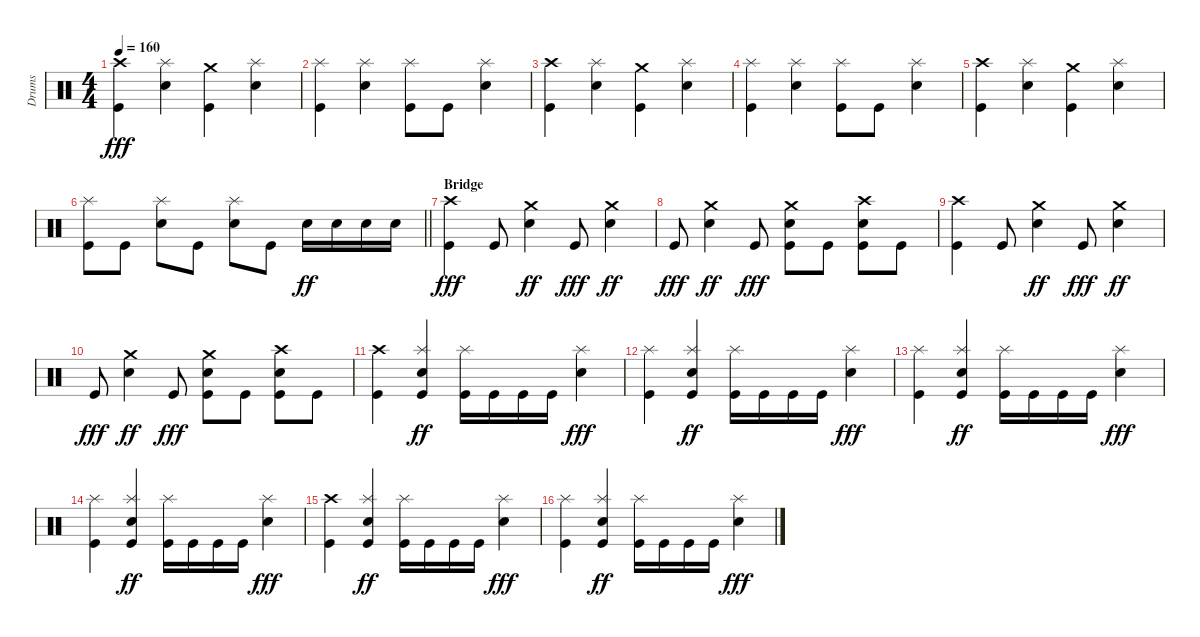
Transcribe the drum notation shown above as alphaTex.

\track ("Drums" "Drums") {instrument percussion}
\staff {score}
\articulation defaults
\ts (4 4)
\tempo 160
\clef neutral
\ks c
("Crash high (hit)" "Kick (hit)").4{dy fff} ("Splash (hit)" "Electric Snare (hit)").4 ("Crash medium (hit)" "Kick (hit)").4 ("Splash (hit)" "Electric Snare (hit)").4 |
("Splash (hit)" "Kick (hit)").4 ("Splash (hit)" "Electric Snare (hit)").4 ("Splash (hit)" "Kick (hit)").8 "Kick (hit)".8 ("Splash (hit)" "Electric Snare (hit)").4 |
("Crash high (hit)" "Kick (hit)").4 ("Splash (hit)" "Electric Snare (hit)").4 ("Crash medium (hit)" "Kick (hit)").4 ("Splash (hit)" "Electric Snare (hit)").4 |
("Splash (hit)" "Kick (hit)").4 ("Splash (hit)" "Electric Snare (hit)").4 ("Splash (hit)" "Kick (hit)").8 "Kick (hit)".8 ("Splash (hit)" "Electric Snare (hit)").4 |
("Crash high (hit)" "Kick (hit)").4 ("Splash (hit)" "Electric Snare (hit)").4 ("Crash medium (hit)" "Kick (hit)").4 ("Splash (hit)" "Electric Snare (hit)").4 |
\barLineRight lightlight
("Splash (hit)" "Kick (hit)").8 "Kick (hit)".8 ("Splash (hit)" "Electric Snare (hit)").8 "Kick (hit)".8 ("Splash (hit)" "Electric Snare (hit)").8 "Kick (hit)".8 "Electric Snare (hit)".16{dy ff} "Electric Snare (hit)".16 "Electric Snare (hit)".16 "Electric Snare (hit)".16 |
\section ("" "Bridge")
("Crash high (hit)" "Kick (hit)").4{dy fff} "Kick (hit)".8 ("Crash medium (hit)" "Electric Snare (hit)").4{dy ff} "Kick (hit)".8{dy fff} ("Crash medium (hit)" "Electric Snare (hit)").4{dy ff} |
"Kick (hit)".8{dy fff} ("Crash medium (hit)" "Electric Snare (hit)").4{dy ff} "Kick (hit)".8{dy fff} ("Crash medium (hit)" "Electric Snare (hit)" "Kick (hit)").8 "Kick (hit)".8 ("Crash high (hit)" "Electric Snare (hit)" "Kick (hit)").8 "Kick (hit)".8 |
("Crash high (hit)" "Kick (hit)").4 "Kick (hit)".8 ("Crash medium (hit)" "Electric Snare (hit)").4{dy ff} "Kick (hit)".8{dy fff} ("Crash medium (hit)" "Electric Snare (hit)").4{dy ff} |
"Kick (hit)".8{dy fff} ("Crash medium (hit)" "Electric Snare (hit)").4{dy ff} "Kick (hit)".8{dy fff} ("Crash medium (hit)" "Electric Snare (hit)" "Kick (hit)").8 "Kick (hit)".8 ("Crash high (hit)" "Electric Snare (hit)" "Kick (hit)").8 "Kick (hit)".8 |
("Crash high (hit)" "Kick (hit)").4 ("Splash (hit)" "Electric Snare (hit)" "Kick (hit)").4{dy ff} ("Splash (hit)" "Kick (hit)").16 "Kick (hit)".16 "Kick (hit)".16 "Kick (hit)".16 ("Splash (hit)" "Electric Snare (hit)").4{dy fff} |
("Splash (hit)" "Kick (hit)").4 ("Splash (hit)" "Electric Snare (hit)" "Kick (hit)").4{dy ff} ("Splash (hit)" "Kick (hit)").16 "Kick (hit)".16 "Kick (hit)".16 "Kick (hit)".16 ("Splash (hit)" "Electric Snare (hit)").4{dy fff} |
("Splash (hit)" "Kick (hit)").4 ("Splash (hit)" "Electric Snare (hit)" "Kick (hit)").4{dy ff} ("Splash (hit)" "Kick (hit)").16 "Kick (hit)".16 "Kick (hit)".16 "Kick (hit)".16 ("Splash (hit)" "Electric Snare (hit)").4{dy fff} |
("Splash (hit)" "Kick (hit)").4 ("Splash (hit)" "Electric Snare (hit)" "Kick (hit)").4{dy ff} ("Splash (hit)" "Kick (hit)").16 "Kick (hit)".16 "Kick (hit)".16 "Kick (hit)".16 ("Splash (hit)" "Electric Snare (hit)").4{dy fff} |
("Crash high (hit)" "Kick (hit)").4 ("Splash (hit)" "Electric Snare (hit)" "Kick (hit)").4{dy ff} ("Splash (hit)" "Kick (hit)").16 "Kick (hit)".16 "Kick (hit)".16 "Kick (hit)".16 ("Splash (hit)" "Electric Snare (hit)").4{dy fff} |
("Splash (hit)" "Kick (hit)").4 ("Splash (hit)" "Electric Snare (hit)" "Kick (hit)").4{dy ff} ("Splash (hit)" "Kick (hit)").16 "Kick (hit)".16 "Kick (hit)".16 "Kick (hit)".16 ("Splash (hit)" "Electric Snare (hit)").4{dy fff}
